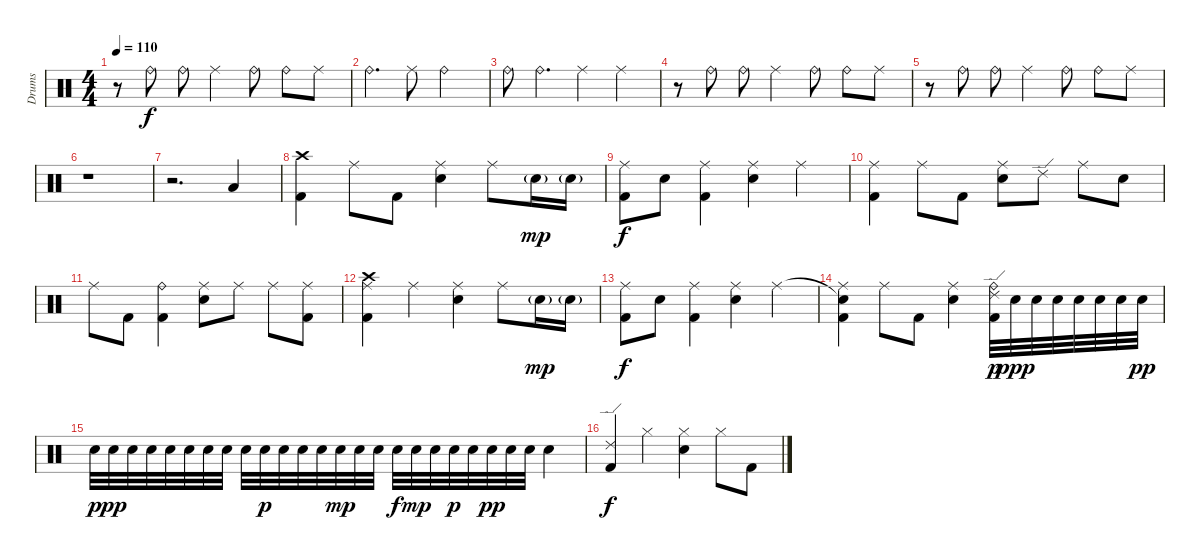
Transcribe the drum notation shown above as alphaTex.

\track ("Drums" "Drums") {instrument percussion}
\staff {score}
\articulation defaults
\ts (4 4)
\tempo 110
\clef neutral
\ks c
r.8{dy f} "Ride (bell)".8 "Ride (bell)".8 "Ride (middle)".4 "Ride (bell)".8 "Ride (bell)".8 "Ride (middle)".8 |
"Ride (bell)".4{d} "Ride (middle)".8 "Ride (bell)".2 |
"Ride (bell)".8 "Ride (bell)".4{d} "Ride (middle)".4 "Ride (middle)".4 |
r.8 "Ride (bell)".8 "Ride (bell)".8 "Ride (middle)".4 "Ride (bell)".8 "Ride (bell)".8 "Ride (middle)".8 |
r.8 "Ride (bell)".8 "Ride (bell)".8 "Ride (middle)".4 "Ride (bell)".8 "Ride (bell)".8 "Ride (middle)".8 |
r.1 |
r.2{d} "Low Floor Tom (hit)".4 |
("Crash high (hit)" "Kick (hit) 2").4 "Ride (middle)".8 "Kick (hit) 2".8 ("Ride (middle)" "Electric Snare (hit)").4 "Ride (middle)".8 "Electric Snare (hit)"{g}.16{dy mp} "Electric Snare (hit)"{g}.16 |
("Ride (middle)" "Kick (hit) 2").8{dy f} "Electric Snare (hit)".8 ("Ride (middle)" "Kick (hit) 2").4 ("Ride (middle)" "Electric Snare (hit)").4 "Ride (middle)".4 |
("Ride (middle)" "Kick (hit) 2").4 "Ride (middle)".8 "Kick (hit) 2".8 ("Ride (middle)" "Electric Snare (hit)").8 "Ride (edge) 2".8 "Ride (middle)".8 "Electric Snare (hit)".8 |
"Ride (middle)".8 "Kick (hit) 2".8 ("Ride (bell)" "Kick (hit) 2").4 ("Ride (middle)" "Electric Snare (hit)").8 "Ride (middle)".8 "Ride (middle)".8 ("Ride (middle)" "Kick (hit) 2").8 |
("Crash high (hit)" "Ride (middle)" "Kick (hit) 2").4 "Ride (middle)".4 ("Ride (middle)" "Electric Snare (hit)").4 "Ride (middle)".8 "Electric Snare (hit)"{g}.16{dy mp} "Electric Snare (hit)"{g}.16 |
("Ride (middle)" "Kick (hit) 2").8{dy f} "Electric Snare (hit)".8 ("Ride (middle)" "Kick (hit) 2").4 ("Ride (middle)" "Electric Snare (hit)").4 "Ride (middle)".4 |
("Snare (hit)"{t} "Ride (middle)" "Kick (hit) 2").4 "Ride (middle)".8 "Kick (hit) 2".8 ("Ride (middle)" "Electric Snare (hit)").4 ("Ride (edge) 2" "Ride (bell)" "Kick (hit) 2").32{dy p} "Electric Snare (hit)".32{dy ppp} "Electric Snare (hit)".32 "Electric Snare (hit)".32 "Electric Snare (hit)".32 "Electric Snare (hit)".32 "Electric Snare (hit)".32 "Electric Snare (hit)".32{dy pp} |
"Electric Snare (hit)".32{dy p} "Electric Snare (hit)".32{dy pp} "Electric Snare (hit)".32 "Electric Snare (hit)".32 "Electric Snare (hit)".32 "Electric Snare (hit)".32 "Electric Snare (hit)".32 "Electric Snare (hit)".32 "Electric Snare (hit)".32 "Electric Snare (hit)".32{dy p} "Electric Snare (hit)".32 "Electric Snare (hit)".32 "Electric Snare (hit)".32 "Electric Snare (hit)".32{dy mp} "Electric Snare (hit)".32 "Electric Snare (hit)".32 "Electric Snare (hit)".32{dy f} "Electric Snare (hit)".32{dy mp} "Electric Snare (hit)".32 "Electric Snare (hit)".32{dy p} "Electric Snare (hit)".32 "Electric Snare (hit)".32{dy pp} "Electric Snare (hit)".32 "Electric Snare (hit)".32 "Electric Snare (hit)".4 |
("Ride (edge) 2" "Kick (hit) 2").4{dy f} "Hi-Hat (closed)".4 ("Hi-Hat (closed)" "Electric Snare (hit)").4 "Hi-Hat (closed)".8 "Kick (hit) 2".8
